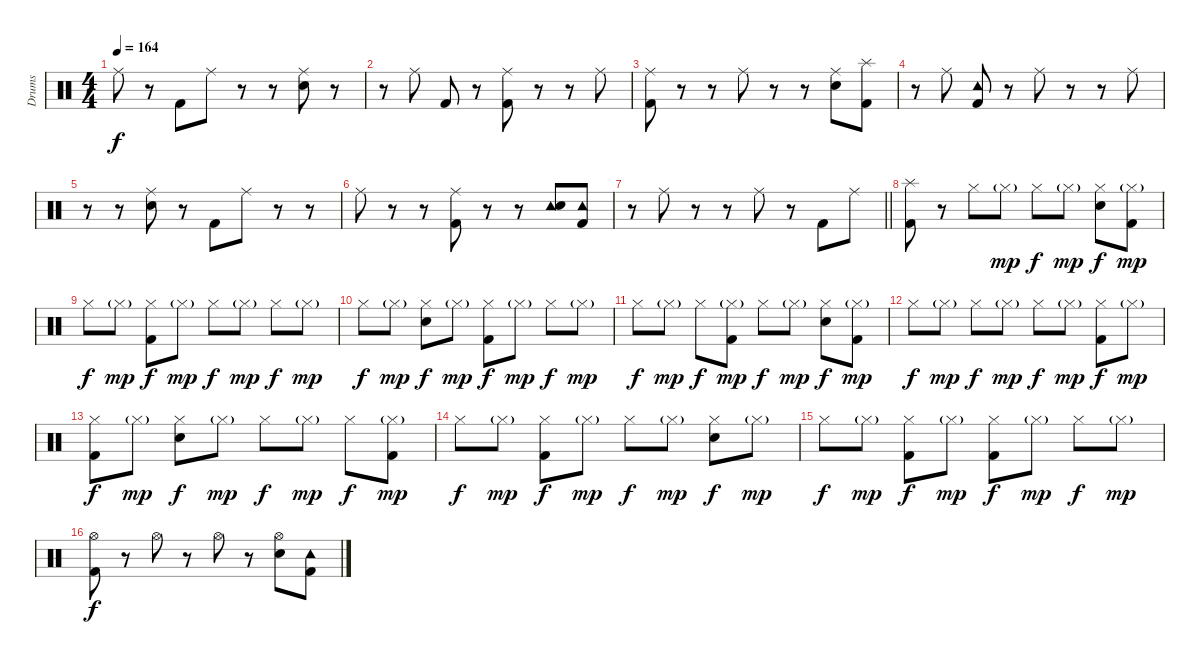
\track ("Drums" "Drums") {instrument percussion}
\staff {score}
\articulation defaults
\ts (4 4)
\tempo 164
\clef neutral
\ks c "Ride (middle)".8{dy f}
r.8 "Kick (hit) 2".8 "Ride (middle)".8 r.8 r.8 ("Ride (middle)" "Electric Snare (hit)").8 r.8 |
r.8 "Ride (middle)".8 "Kick (hit) 2".8 r.8 ("Ride (middle)" "Kick (hit) 2").8 r.8 r.8 "Ride (middle)".8 |
("Ride (middle)" "Kick (hit) 2").8 r.8 r.8 "Ride (middle)".8 r.8 r.8 ("Ride (middle)" "Electric Snare (hit)").8 ("Splash (hit)" "Kick (hit) 2").8 |
r.8 "Ride (middle)".8 ("Tambourine (hit)" "Kick (hit) 2").8 r.8 "Ride (middle)".8 r.8 r.8 "Ride (middle)".8 |
r.8 r.8 ("Ride (middle)" "Electric Snare (hit)").8 r.8 "Kick (hit) 2".8 "Ride (middle)".8 r.8 r.8 |
"Ride (middle)".8 r.8 r.8 ("Ride (middle)" "Kick (hit) 2").8 r.8 r.8 ("Tambourine (hit)" "Electric Snare (hit)").8 ("Tambourine (hit)" "Kick (hit) 2").8 |
\barLineRight lightlight
r.8 "Ride (middle)".8 r.8 r.8 "Ride (middle)".8 r.8 "Kick (hit) 2".8 "Ride (middle)".8 |
\section ("" "")
("Splash (hit)" "Kick (hit) 2").8 r.8 "Hi-Hat (closed)".8 "Hi-Hat (closed)"{g}.8{dy mp} "Hi-Hat (closed)".8{dy f} "Hi-Hat (closed)"{g}.8{dy mp} ("Hi-Hat (closed)" "Electric Snare (hit)").8{dy f} ("Hi-Hat (closed)"{g} "Kick (hit) 2").8{dy mp} |
"Hi-Hat (closed)".8{dy f} "Hi-Hat (closed)"{g}.8{dy mp} ("Hi-Hat (closed)" "Kick (hit) 2").8{dy f} "Hi-Hat (closed)"{g}.8{dy mp} "Hi-Hat (closed)".8{dy f} "Hi-Hat (closed)"{g}.8{dy mp} "Hi-Hat (closed)".8{dy f} "Hi-Hat (closed)"{g}.8{dy mp} |
"Hi-Hat (closed)".8{dy f} "Hi-Hat (closed)"{g}.8{dy mp} ("Hi-Hat (closed)" "Electric Snare (hit)").8{dy f} "Hi-Hat (closed)"{g}.8{dy mp} ("Hi-Hat (closed)" "Kick (hit) 2").8{dy f} "Hi-Hat (closed)"{g}.8{dy mp} "Hi-Hat (closed)".8{dy f} "Hi-Hat (closed)"{g}.8{dy mp} |
"Hi-Hat (closed)".8{dy f} "Hi-Hat (closed)"{g}.8{dy mp} "Hi-Hat (closed)".8{dy f} ("Hi-Hat (closed)"{g} "Kick (hit) 2").8{dy mp} "Hi-Hat (closed)".8{dy f} "Hi-Hat (closed)"{g}.8{dy mp} ("Hi-Hat (closed)" "Electric Snare (hit)").8{dy f} ("Hi-Hat (closed)"{g} "Kick (hit) 2").8{dy mp} |
"Hi-Hat (closed)".8{dy f} "Hi-Hat (closed)"{g}.8{dy mp} "Hi-Hat (closed)".8{dy f} "Hi-Hat (closed)"{g}.8{dy mp} "Hi-Hat (closed)".8{dy f} "Hi-Hat (closed)"{g}.8{dy mp} ("Hi-Hat (closed)" "Kick (hit) 2").8{dy f} "Hi-Hat (closed)"{g}.8{dy mp} |
("Hi-Hat (closed)" "Kick (hit) 2").8{dy f} "Hi-Hat (closed)"{g}.8{dy mp} ("Hi-Hat (closed)" "Electric Snare (hit)").8{dy f} "Hi-Hat (closed)"{g}.8{dy mp} "Hi-Hat (closed)".8{dy f} "Hi-Hat (closed)"{g}.8{dy mp} "Hi-Hat (closed)".8{dy f} ("Hi-Hat (closed)"{g} "Kick (hit) 2").8{dy mp} |
"Hi-Hat (closed)".8{dy f} "Hi-Hat (closed)"{g}.8{dy mp} ("Hi-Hat (closed)" "Kick (hit) 2").8{dy f} "Hi-Hat (closed)"{g}.8{dy mp} "Hi-Hat (closed)".8{dy f} "Hi-Hat (closed)"{g}.8{dy mp} ("Hi-Hat (closed)" "Electric Snare (hit)").8{dy f} "Hi-Hat (closed)"{g}.8{dy mp} |
"Hi-Hat (closed)".8{dy f} "Hi-Hat (closed)"{g}.8{dy mp} ("Hi-Hat (closed)" "Kick (hit) 2").8{dy f} "Hi-Hat (closed)"{g}.8{dy mp} ("Hi-Hat (closed)" "Kick (hit) 2").8{dy f} "Hi-Hat (closed)"{g}.8{dy mp} "Hi-Hat (closed)".8{dy f} "Hi-Hat (closed)"{g}.8{dy mp} |
("Hi-Hat (open)" "Kick (hit) 2").8{dy f} r.8 "Hi-Hat (open)".8 r.8 "Hi-Hat (open)".8 r.8 ("Hi-Hat (open)" "Electric Snare (hit)").8 ("Tambourine (hit)" "Kick (hit) 2").8
